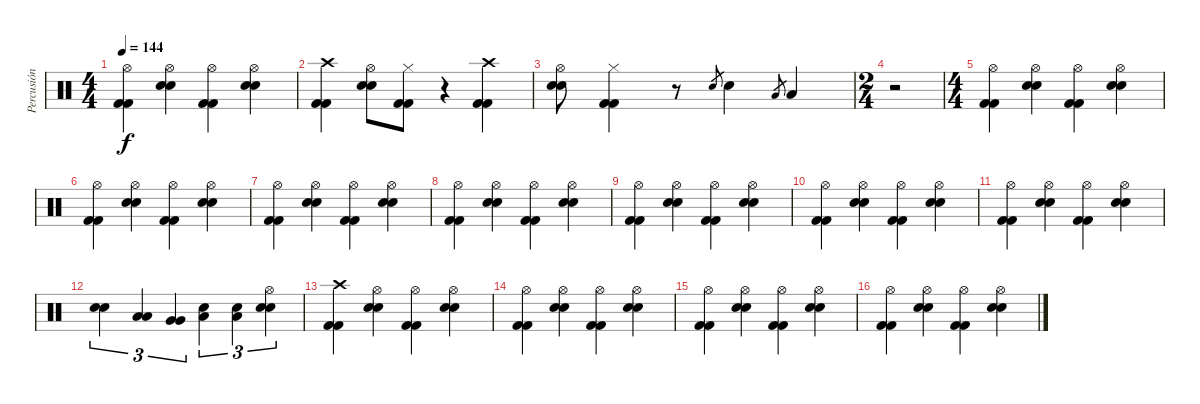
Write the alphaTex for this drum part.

\track ("Percusión" "Percusión") {instrument percussion}
\staff {score}
\articulation defaults
\ts (4 4)
\tempo 144
\clef neutral
\ks c
("Hi-Hat (open)" "Kick (hit) 2" "Kick (hit) 2").4{dy f} ("Hi-Hat (open)" "Snare (hit) 2" "Snare (hit) 2").4 ("Hi-Hat (open)" "Kick (hit) 2" "Kick (hit) 2").4 ("Hi-Hat (open)" "Snare (hit) 2" "Snare (hit) 2").4 |
("Crash high (hit)" "Kick (hit) 2" "Kick (hit) 2").4 ("Hi-Hat (open)" "Snare (hit) 2" "Snare (hit) 2").8 ("Hi-Hat (closed)" "Kick (hit) 2" "Kick (hit) 2").8 r.4 ("Crash high (hit)" "Kick (hit) 2" "Kick (hit) 2").4 |
("Hi-Hat (open)" "Snare (hit) 2" "Snare (hit) 2").8 ("Hi-Hat (closed)" "Kick (hit) 2" "Kick (hit) 2").4 r.8 "Snare (hit) 2".8{gr} "Snare (hit) 2".4 "Low Tom (hit)".8{gr} "Low Tom (hit)".4 |
\ts (2 4)
r.2 |
\ts (4 4)
("Hi-Hat (open)" "Kick (hit) 2" "Kick (hit) 2").4 ("Hi-Hat (open)" "Snare (hit) 2" "Snare (hit) 2").4 ("Hi-Hat (open)" "Kick (hit) 2" "Kick (hit) 2").4 ("Hi-Hat (open)" "Snare (hit) 2" "Snare (hit) 2").4 |
("Hi-Hat (open)" "Kick (hit) 2" "Kick (hit) 2").4 ("Hi-Hat (open)" "Snare (hit) 2" "Snare (hit) 2").4 ("Hi-Hat (open)" "Kick (hit) 2" "Kick (hit) 2").4 ("Hi-Hat (open)" "Snare (hit) 2" "Snare (hit) 2").4 |
("Hi-Hat (open)" "Kick (hit) 2" "Kick (hit) 2").4 ("Hi-Hat (open)" "Snare (hit) 2" "Snare (hit) 2").4 ("Hi-Hat (open)" "Kick (hit) 2" "Kick (hit) 2").4 ("Hi-Hat (open)" "Snare (hit) 2" "Snare (hit) 2").4 |
("Hi-Hat (open)" "Kick (hit) 2" "Kick (hit) 2").4 ("Hi-Hat (open)" "Snare (hit) 2" "Snare (hit) 2").4 ("Hi-Hat (open)" "Kick (hit) 2" "Kick (hit) 2").4 ("Hi-Hat (open)" "Snare (hit) 2" "Snare (hit) 2").4 |
("Hi-Hat (open)" "Kick (hit) 2" "Kick (hit) 2").4 ("Hi-Hat (open)" "Snare (hit) 2" "Snare (hit) 2").4 ("Hi-Hat (open)" "Kick (hit) 2" "Kick (hit) 2").4 ("Hi-Hat (open)" "Snare (hit) 2" "Snare (hit) 2").4 |
("Hi-Hat (open)" "Kick (hit) 2" "Kick (hit) 2").4 ("Hi-Hat (open)" "Snare (hit) 2" "Snare (hit) 2").4 ("Hi-Hat (open)" "Kick (hit) 2" "Kick (hit) 2").4 ("Hi-Hat (open)" "Snare (hit) 2" "Snare (hit) 2").4 |
("Hi-Hat (open)" "Kick (hit) 2" "Kick (hit) 2").4 ("Hi-Hat (open)" "Snare (hit) 2" "Snare (hit) 2").4 ("Hi-Hat (open)" "Kick (hit) 2" "Kick (hit) 2").4 ("Hi-Hat (open)" "Snare (hit) 2" "Snare (hit) 2").4 |
("Snare (hit) 2" "Snare (hit) 2").4{tu (3 2)} ("Low Tom (hit)" "Low Tom (hit)").4{tu (3 2)} ("Very Low Tom (hit)" "Very Low Tom (hit)").4{tu (3 2)} ("Snare (hit) 2" "Low Tom (hit)").4{tu (3 2)} ("Snare (hit) 2" "Low Tom (hit)").4{tu (3 2)} ("Hi-Hat (open)" "Snare (hit) 2" "Snare (hit) 2").4{tu (3 2)} |
("Crash high (hit)" "Kick (hit) 2" "Kick (hit) 2").4 ("Hi-Hat (open)" "Snare (hit) 2" "Snare (hit) 2").4 ("Hi-Hat (open)" "Kick (hit) 2" "Kick (hit) 2").4 ("Hi-Hat (open)" "Snare (hit) 2" "Snare (hit) 2").4 |
("Hi-Hat (open)" "Kick (hit) 2" "Kick (hit) 2").4 ("Hi-Hat (open)" "Snare (hit) 2" "Snare (hit) 2").4 ("Hi-Hat (open)" "Kick (hit) 2" "Kick (hit) 2").4 ("Hi-Hat (open)" "Snare (hit) 2" "Snare (hit) 2").4 |
("Hi-Hat (open)" "Kick (hit) 2" "Kick (hit) 2").4 ("Hi-Hat (open)" "Snare (hit) 2" "Snare (hit) 2").4 ("Hi-Hat (open)" "Kick (hit) 2" "Kick (hit) 2").4 ("Hi-Hat (open)" "Snare (hit) 2" "Snare (hit) 2").4 |
("Hi-Hat (open)" "Kick (hit) 2" "Kick (hit) 2").4 ("Hi-Hat (open)" "Snare (hit) 2" "Snare (hit) 2").4 ("Hi-Hat (open)" "Kick (hit) 2" "Kick (hit) 2").4 ("Hi-Hat (open)" "Snare (hit) 2" "Snare (hit) 2").4
